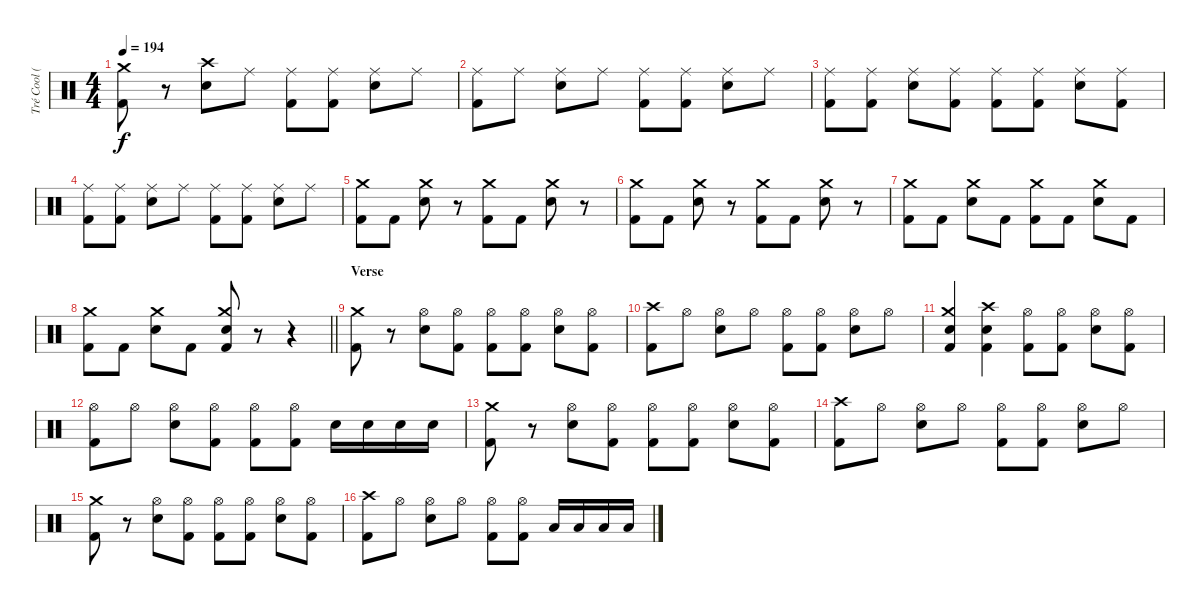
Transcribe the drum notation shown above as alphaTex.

\track ("Tré Cool (Drums)" "Tré Cool (") {instrument percussion}
\staff {score}
\articulation defaults
\ts (4 4)
\tempo 194
\clef neutral
\ks c
("Kick (hit) 2" "Crash medium (hit)").8{dy f} r.8 ("Snare (hit) 2" "Crash high (hit)").8 "Ride (middle)".8 ("Kick (hit) 2" "Ride (middle)").8 ("Kick (hit) 2" "Ride (middle)").8 ("Snare (hit) 2" "Ride (middle)").8 "Ride (middle)".8 |
("Kick (hit) 2" "Ride (middle)").8 "Ride (middle)".8 ("Snare (hit) 2" "Ride (middle)").8 "Ride (middle)".8 ("Kick (hit) 2" "Ride (middle)").8 ("Kick (hit) 2" "Ride (middle)").8 ("Snare (hit) 2" "Ride (middle)").8 "Ride (middle)".8 |
("Kick (hit) 2" "Ride (middle)").8 ("Kick (hit) 2" "Ride (middle)").8 ("Snare (hit) 2" "Ride (middle)").8 ("Kick (hit) 2" "Ride (middle)").8 ("Kick (hit) 2" "Ride (middle)").8 ("Kick (hit) 2" "Ride (middle)").8 ("Snare (hit) 2" "Ride (middle)").8 ("Kick (hit) 2" "Ride (middle)").8 |
("Kick (hit) 2" "Ride (middle)").8 ("Kick (hit) 2" "Ride (middle)").8 ("Snare (hit) 2" "Ride (middle)").8 "Ride (middle)".8 ("Kick (hit) 2" "Ride (middle)").8 ("Kick (hit) 2" "Ride (middle)").8 ("Snare (hit) 2" "Ride (middle)").8 "Ride (middle)".8 |
("Kick (hit) 2" "Crash medium (hit)").8 "Kick (hit) 2".8 ("Snare (hit) 2" "Crash medium (hit)").8 r.8 ("Kick (hit) 2" "Crash medium (hit)").8 "Kick (hit) 2".8 ("Snare (hit) 2" "Crash medium (hit)").8 r.8 |
("Kick (hit) 2" "Crash medium (hit)").8 "Kick (hit) 2".8 ("Snare (hit) 2" "Crash medium (hit)").8 r.8 ("Kick (hit) 2" "Crash medium (hit)").8 "Kick (hit) 2".8 ("Snare (hit) 2" "Crash medium (hit)").8 r.8 |
("Kick (hit) 2" "Crash medium (hit)").8 "Kick (hit) 2".8 ("Snare (hit) 2" "Crash medium (hit)").8 "Kick (hit) 2".8 ("Kick (hit) 2" "Crash medium (hit)").8 "Kick (hit) 2".8 ("Snare (hit) 2" "Crash medium (hit)").8 "Kick (hit) 2".8 |
\barLineRight lightlight
("Kick (hit) 2" "Crash medium (hit)").8 "Kick (hit) 2".8 ("Snare (hit) 2" "Crash medium (hit)").8 "Kick (hit) 2".8 ("Kick (hit) 2" "Snare (hit) 2" "Crash medium (hit)").8 r.8 r.4 |
\section ("" "Verse")
("Kick (hit) 2" "Crash medium (hit)").8 r.8 ("Snare (hit) 2" "Hi-Hat (open)").8 ("Kick (hit) 2" "Hi-Hat (open)").8 ("Kick (hit) 2" "Hi-Hat (open)").8 ("Kick (hit) 2" "Hi-Hat (open)").8 ("Snare (hit) 2" "Hi-Hat (open)").8 ("Kick (hit) 2" "Hi-Hat (open)").8 |
("Kick (hit) 2" "Crash high (hit)").8 "Hi-Hat (open)".8 ("Snare (hit) 2" "Hi-Hat (open)").8 "Hi-Hat (open)".8 ("Kick (hit) 2" "Hi-Hat (open)").8 ("Kick (hit) 2" "Hi-Hat (open)").8 ("Snare (hit) 2" "Hi-Hat (open)").8 "Hi-Hat (open)".8 |
("Kick (hit) 2" "Snare (hit) 2" "Crash medium (hit)").4 ("Kick (hit) 2" "Snare (hit) 2" "Crash high (hit)").4 ("Kick (hit) 2" "Hi-Hat (open)").8 ("Kick (hit) 2" "Hi-Hat (open)").8 ("Snare (hit) 2" "Hi-Hat (open)").8 ("Kick (hit) 2" "Hi-Hat (open)").8 |
("Kick (hit) 2" "Hi-Hat (open)").8 "Hi-Hat (open)".8 ("Snare (hit) 2" "Hi-Hat (open)").8 ("Kick (hit) 2" "Hi-Hat (open)").8 ("Kick (hit) 2" "Hi-Hat (open)").8 ("Kick (hit) 2" "Hi-Hat (open)").8 "Snare (hit) 2".16 "Snare (hit) 2".16 "Snare (hit) 2".16 "Snare (hit) 2".16 |
("Kick (hit) 2" "Crash medium (hit)").8 r.8 ("Snare (hit) 2" "Hi-Hat (open)").8 ("Kick (hit) 2" "Hi-Hat (open)").8 ("Kick (hit) 2" "Hi-Hat (open)").8 ("Kick (hit) 2" "Hi-Hat (open)").8 ("Snare (hit) 2" "Hi-Hat (open)").8 ("Kick (hit) 2" "Hi-Hat (open)").8 |
("Kick (hit) 2" "Crash high (hit)").8 "Hi-Hat (open)".8 ("Snare (hit) 2" "Hi-Hat (open)").8 "Hi-Hat (open)".8 ("Kick (hit) 2" "Hi-Hat (open)").8 ("Kick (hit) 2" "Hi-Hat (open)").8 ("Snare (hit) 2" "Hi-Hat (open)").8 "Hi-Hat (open)".8 |
("Kick (hit) 2" "Crash medium (hit)").8 r.8 ("Snare (hit) 2" "Hi-Hat (open)").8 ("Kick (hit) 2" "Hi-Hat (open)").8 ("Kick (hit) 2" "Hi-Hat (open)").8 ("Kick (hit) 2" "Hi-Hat (open)").8 ("Snare (hit) 2" "Hi-Hat (open)").8 ("Kick (hit) 2" "Hi-Hat (open)").8 |
("Kick (hit) 2" "Crash high (hit)").8 "Hi-Hat (open)".8 ("Snare (hit) 2" "Hi-Hat (open)").8 "Hi-Hat (open)".8 ("Kick (hit) 2" "Hi-Hat (open)").8 ("Kick (hit) 2" "Hi-Hat (open)").8 "Low Floor Tom (hit)".16 "Low Floor Tom (hit)".16 "Low Floor Tom (hit)".16 "Low Floor Tom (hit)".16
